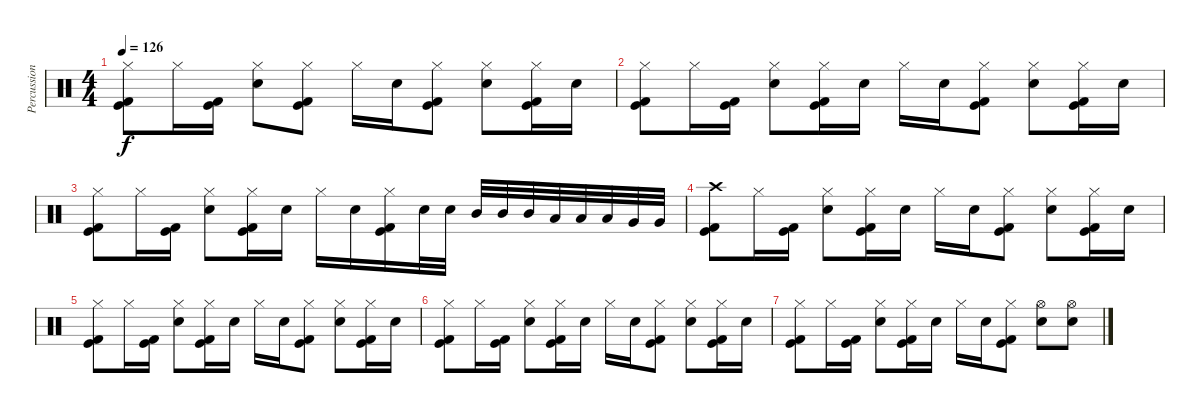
\track ("Percussion" "Percussion") {instrument percussion}
\staff {score}
\articulation defaults
\ts (4 4)
\tempo 126
\clef neutral
\ks c
("Hi-Hat (closed)" "Kick (hit)" "Kick (hit) 2").8{dy f} "Hi-Hat (closed)".16 ("Kick (hit)" "Kick (hit) 2").16 ("Hi-Hat (closed)" "Electric Snare (hit)").8 ("Hi-Hat (closed)" "Kick (hit)" "Kick (hit) 2").8 "Hi-Hat (closed)".16 "Electric Snare (hit)".16 ("Hi-Hat (closed)" "Kick (hit)" "Kick (hit) 2").8 ("Hi-Hat (closed)" "Electric Snare (hit)").8 ("Hi-Hat (closed)" "Kick (hit)" "Kick (hit) 2").16 "Electric Snare (hit)".16 |
("Hi-Hat (closed)" "Kick (hit)" "Kick (hit) 2").8 "Hi-Hat (closed)".16 ("Kick (hit)" "Kick (hit) 2").16 ("Hi-Hat (closed)" "Electric Snare (hit)").8 ("Hi-Hat (closed)" "Kick (hit)" "Kick (hit) 2").16 "Electric Snare (hit)".16 "Hi-Hat (closed)".16 "Electric Snare (hit)".16 ("Hi-Hat (closed)" "Kick (hit)" "Kick (hit) 2").8 ("Hi-Hat (closed)" "Electric Snare (hit)").8 ("Hi-Hat (closed)" "Kick (hit)" "Kick (hit) 2").16 "Electric Snare (hit)".16 |
("Hi-Hat (closed)" "Kick (hit)" "Kick (hit) 2").8 "Hi-Hat (closed)".16 ("Kick (hit)" "Kick (hit) 2").16 ("Hi-Hat (closed)" "Electric Snare (hit)").8 ("Hi-Hat (closed)" "Kick (hit)" "Kick (hit) 2").16 "Electric Snare (hit)".16 "Hi-Hat (closed)".16 "Electric Snare (hit)".16 ("Hi-Hat (closed)" "Kick (hit)" "Kick (hit) 2").16 "Electric Snare (hit)".32 "Electric Snare (hit)".32 "Mid Tom (hit)".32 "Mid Tom (hit)".32 "Mid Tom (hit)".32 "Low Tom (hit)".32 "Low Tom (hit)".32 "Low Tom (hit)".32 "Very Low Tom (hit)".32 "Very Low Tom (hit)".32 |
("Crash high (hit)" "Kick (hit)" "Kick (hit) 2").8 "Hi-Hat (closed)".16 ("Kick (hit)" "Kick (hit) 2").16 ("Hi-Hat (closed)" "Electric Snare (hit)").8 ("Hi-Hat (closed)" "Kick (hit)" "Kick (hit) 2").16 "Electric Snare (hit)".16 "Hi-Hat (closed)".16 "Electric Snare (hit)".16 ("Hi-Hat (closed)" "Kick (hit)" "Kick (hit) 2").8 ("Hi-Hat (closed)" "Electric Snare (hit)").8 ("Hi-Hat (closed)" "Kick (hit)" "Kick (hit) 2").16 "Electric Snare (hit)".16 |
("Hi-Hat (closed)" "Kick (hit)" "Kick (hit) 2").8 "Hi-Hat (closed)".16 ("Kick (hit)" "Kick (hit) 2").16 ("Hi-Hat (closed)" "Electric Snare (hit)").8 ("Hi-Hat (closed)" "Kick (hit)" "Kick (hit) 2").16 "Electric Snare (hit)".16 "Hi-Hat (closed)".16 "Electric Snare (hit)".16 ("Hi-Hat (closed)" "Kick (hit)" "Kick (hit) 2").8 ("Hi-Hat (closed)" "Electric Snare (hit)").8 ("Hi-Hat (closed)" "Kick (hit)" "Kick (hit) 2").16 "Electric Snare (hit)".16 |
("Hi-Hat (closed)" "Kick (hit)" "Kick (hit) 2").8 "Hi-Hat (closed)".16 ("Kick (hit)" "Kick (hit) 2").16 ("Hi-Hat (closed)" "Electric Snare (hit)").8 ("Hi-Hat (closed)" "Kick (hit)" "Kick (hit) 2").16 "Electric Snare (hit)".16 "Hi-Hat (closed)".16 "Electric Snare (hit)".16 ("Hi-Hat (closed)" "Kick (hit)" "Kick (hit) 2").8 ("Hi-Hat (closed)" "Electric Snare (hit)").8 ("Hi-Hat (closed)" "Kick (hit)" "Kick (hit) 2").16 "Electric Snare (hit)".16 |
("Hi-Hat (closed)" "Kick (hit)" "Kick (hit) 2").8 "Hi-Hat (closed)".16 ("Kick (hit)" "Kick (hit) 2").16 ("Hi-Hat (closed)" "Electric Snare (hit)").8 ("Hi-Hat (closed)" "Kick (hit)" "Kick (hit) 2").16 "Electric Snare (hit)".16 "Hi-Hat (closed)".16 "Electric Snare (hit)".16 ("Hi-Hat (closed)" "Kick (hit)" "Kick (hit) 2").8 ("Hi-Hat (open)" "Electric Snare (hit)").8 ("Hi-Hat (open)" "Electric Snare (hit)").8
